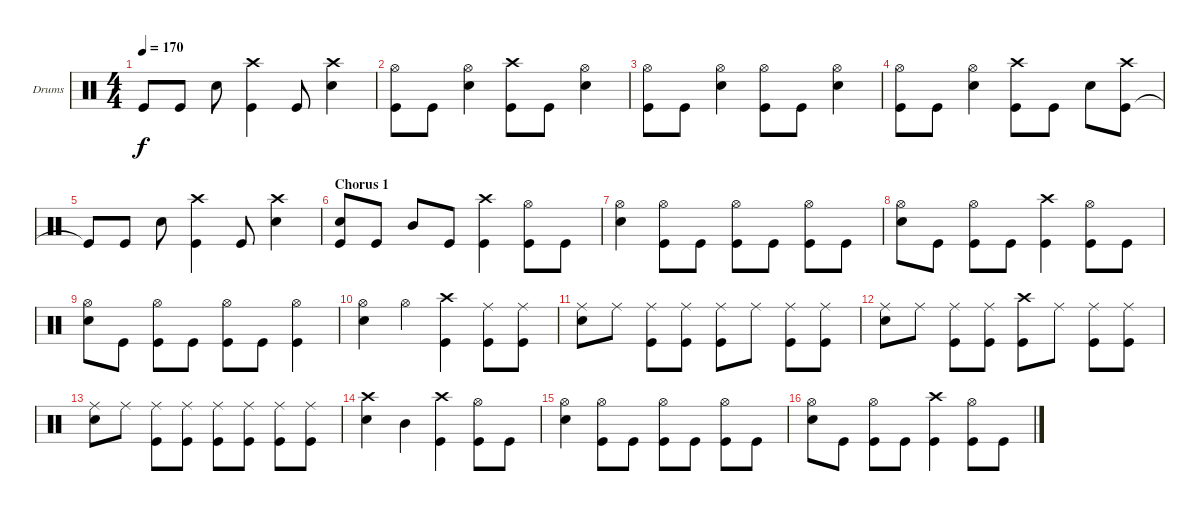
\defaultSystemsLayout 4
\bracketExtendMode groupsimilarinstruments
\firstSystemTrackNameOrientation horizontal
\otherSystemsTrackNameOrientation horizontal
\track ("Jimmy \"The Hammer\" - Drums" "Drums") {instrument percussion}
\staff {score}
\articulation defaults
\ts (4 4)
\tempo 170
\clef neutral
\ks c "Kick (hit)"{t}.8{dy f} "Kick (hit)".8 "Snare (hit) 2".8
("Kick (hit)" "Crash high (hit)").4 "Kick (hit)".8 ("Snare (hit) 2" "Crash high (hit)").4 |
("Kick (hit)" "Hi-Hat (open)").8 "Kick (hit)".8 ("Snare (hit) 2" "Hi-Hat (open)").4 ("Kick (hit)" "Crash high (hit)").8 "Kick (hit)".8 ("Hi-Hat (open)" "Snare (hit) 2").4 |
("Kick (hit)" "Hi-Hat (open)").8 "Kick (hit)".8 ("Snare (hit) 2" "Hi-Hat (open)").4 ("Kick (hit)" "Hi-Hat (open)").8 "Kick (hit)".8 ("Snare (hit) 2" "Hi-Hat (open)").4 |
("Kick (hit)" "Hi-Hat (open)").8 "Kick (hit)".8 ("Snare (hit) 2" "Hi-Hat (open)").4 ("Kick (hit)" "Crash high (hit)").8 "Kick (hit)".8 "Snare (hit) 2".8 ("Kick (hit)" "Crash high (hit)").8 |
"Kick (hit)"{t}.8 "Kick (hit)".8 "Snare (hit) 2".8 ("Kick (hit)" "Crash high (hit)").4 "Kick (hit)".8 ("Snare (hit) 2" "Crash high (hit)").4 |
\section ("" "Chorus 1")
("Kick (hit)" "Snare (hit) 2").8 "Kick (hit)".8 "Mid Tom (hit)".8 "Kick (hit)".8 ("Kick (hit)" "Crash high (hit)").4 ("Kick (hit)" "Hi-Hat (open)").8 "Kick (hit)".8 |
("Snare (hit) 2" "Hi-Hat (open)").4 ("Kick (hit)" "Hi-Hat (open)").8 "Kick (hit)".8 ("Kick (hit)" "Hi-Hat (open)").8 "Kick (hit)".8 ("Kick (hit)" "Hi-Hat (open)").8 "Kick (hit)".8 |
("Snare (hit) 2" "Hi-Hat (open)").8 "Kick (hit)".8 ("Kick (hit)" "Hi-Hat (open)").8 "Kick (hit)".8 ("Kick (hit)" "Crash high (hit)").4 ("Kick (hit)" "Hi-Hat (open)").8 "Kick (hit)".8 |
("Snare (hit) 2" "Hi-Hat (open)").8 "Kick (hit)".8 ("Kick (hit)" "Hi-Hat (open)").8 "Kick (hit)".8 ("Kick (hit)" "Hi-Hat (open)").8 "Kick (hit)".8 ("Kick (hit)" "Hi-Hat (open)").4 |
("Snare (hit) 2" "Hi-Hat (open)").4 "Hi-Hat (open)".4 ("Kick (hit)" "Crash high (hit)").4 ("Kick (hit)" "Ride (middle)").8 ("Kick (hit)" "Ride (middle)").8 |
("Snare (hit) 2" "Ride (middle)").8 "Ride (middle)".8 ("Kick (hit)" "Ride (middle)").8 ("Kick (hit)" "Ride (middle)").8 ("Kick (hit)" "Ride (middle)").8 "Ride (middle)".8 ("Kick (hit)" "Ride (middle)").8 ("Kick (hit)" "Ride (middle)").8 |
("Snare (hit) 2" "Ride (middle)").8 "Ride (middle)".8 ("Ride (middle)" "Kick (hit)").8 ("Kick (hit)" "Ride (middle)").8 ("Kick (hit)" "Crash high (hit)").8 "Ride (middle)".8 ("Kick (hit)" "Ride (middle)").8 ("Kick (hit)" "Ride (middle)").8 |
("Snare (hit) 2" "Ride (middle)").8 "Ride (middle)".8 ("Ride (middle)" "Kick (hit)").8 ("Kick (hit)" "Ride (middle)").8 ("Kick (hit)" "Ride (middle)").8 ("Kick (hit)" "Ride (middle)").8 ("Kick (hit)" "Ride (middle)").8 ("Kick (hit)" "Ride (middle)").8 |
("Snare (hit) 2" "Crash high (hit)").4 "Mid Tom (hit)".4 ("Kick (hit)" "Crash high (hit)").4 ("Kick (hit)" "Hi-Hat (open)").8 "Kick (hit)".8 |
("Snare (hit) 2" "Hi-Hat (open)").4 ("Kick (hit)" "Hi-Hat (open)").8 "Kick (hit)".8 ("Kick (hit)" "Hi-Hat (open)").8 "Kick (hit)".8 ("Kick (hit)" "Hi-Hat (open)").8 "Kick (hit)".8 |
("Snare (hit) 2" "Hi-Hat (open)").8 "Kick (hit)".8 ("Kick (hit)" "Hi-Hat (open)").8 "Kick (hit)".8 ("Kick (hit)" "Crash high (hit)").4 ("Kick (hit)" "Hi-Hat (open)").8 "Kick (hit)".8
